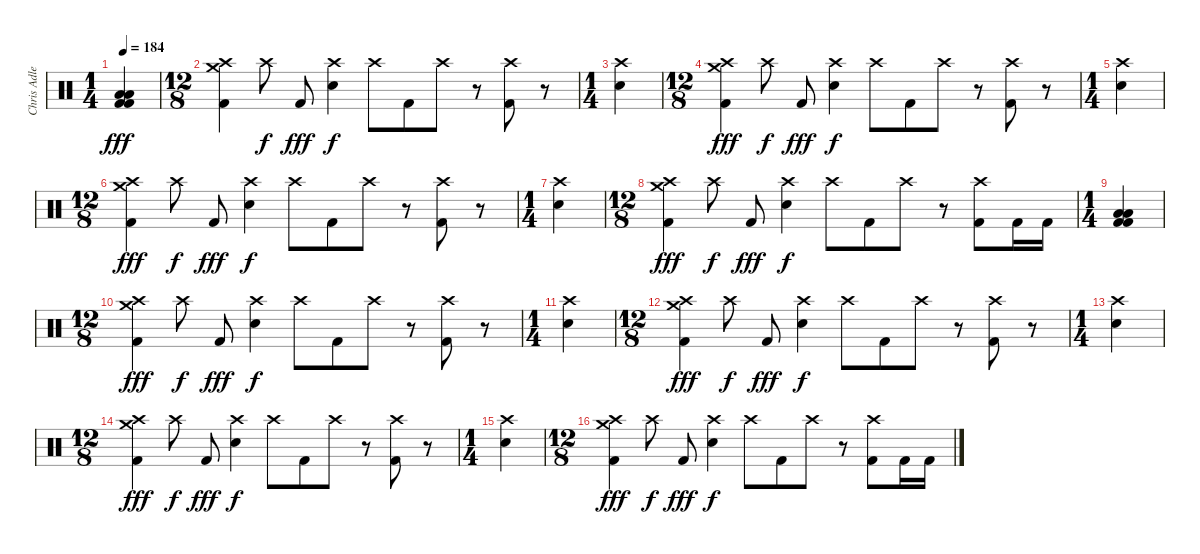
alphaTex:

\track ("Chris Adler" "Chris Adle") {instrument percussion}
\staff {score}
\articulation defaults
\ts (1 4)
\tempo 184
\clef neutral
\ks c
("Low Floor Tom (hit)" "Low Floor Tom (hit)" "Kick (hit) 2" "Kick (hit) 2").4{dy fff} |
\ts (12 8)
("Crash high (hit)" "Crash medium (hit)" "Kick (hit) 2").4 "Crash high (hit)".8{dy f} "Kick (hit) 2".8{dy fff} ("Crash high (hit)" "Electric Snare (hit)").4{dy f} "Crash high (hit)".8 "Kick (hit) 2".8 "Crash high (hit)".8 r.8 ("Crash high (hit)" "Kick (hit) 2").8 r.8 |
\ts (1 4)
("Crash high (hit)" "Electric Snare (hit)").4 |
\ts (12 8)
("Crash high (hit)" "Crash medium (hit)" "Kick (hit) 2").4{dy fff} "Crash high (hit)".8{dy f} "Kick (hit) 2".8{dy fff} ("Crash high (hit)" "Electric Snare (hit)").4{dy f} "Crash high (hit)".8 "Kick (hit) 2".8 "Crash high (hit)".8 r.8 ("Crash high (hit)" "Kick (hit) 2").8 r.8 |
\ts (1 4)
("Crash high (hit)" "Electric Snare (hit)").4 |
\ts (12 8)
("Crash high (hit)" "Crash medium (hit)" "Kick (hit) 2").4{dy fff} "Crash high (hit)".8{dy f} "Kick (hit) 2".8{dy fff} ("Crash high (hit)" "Electric Snare (hit)").4{dy f} "Crash high (hit)".8 "Kick (hit) 2".8 "Crash high (hit)".8 r.8 ("Crash high (hit)" "Kick (hit) 2").8 r.8 |
\ts (1 4)
("Crash high (hit)" "Electric Snare (hit)").4 |
\ts (12 8)
("Crash high (hit)" "Crash medium (hit)" "Kick (hit) 2").4{dy fff} "Crash high (hit)".8{dy f} "Kick (hit) 2".8{dy fff} ("Crash high (hit)" "Electric Snare (hit)").4{dy f} "Crash high (hit)".8 "Kick (hit) 2".8 "Crash high (hit)".8 r.8 ("Crash high (hit)" "Kick (hit) 2").8 "Kick (hit) 2".16 "Kick (hit) 2".16 |
\ts (1 4)
("Low Floor Tom (hit)" "Low Floor Tom (hit)" "Kick (hit) 2" "Kick (hit) 2").4 |
\ts (12 8)
("Crash high (hit)" "Crash medium (hit)" "Kick (hit) 2").4{dy fff} "Crash high (hit)".8{dy f} "Kick (hit) 2".8{dy fff} ("Crash high (hit)" "Electric Snare (hit)").4{dy f} "Crash high (hit)".8 "Kick (hit) 2".8 "Crash high (hit)".8 r.8 ("Crash high (hit)" "Kick (hit) 2").8 r.8 |
\ts (1 4)
("Crash high (hit)" "Electric Snare (hit)").4 |
\ts (12 8)
("Crash high (hit)" "Crash medium (hit)" "Kick (hit) 2").4{dy fff} "Crash high (hit)".8{dy f} "Kick (hit) 2".8{dy fff} ("Crash high (hit)" "Electric Snare (hit)").4{dy f} "Crash high (hit)".8 "Kick (hit) 2".8 "Crash high (hit)".8 r.8 ("Crash high (hit)" "Kick (hit) 2").8 r.8 |
\ts (1 4)
("Crash high (hit)" "Electric Snare (hit)").4 |
\ts (12 8)
("Crash high (hit)" "Crash medium (hit)" "Kick (hit) 2").4{dy fff} "Crash high (hit)".8{dy f} "Kick (hit) 2".8{dy fff} ("Crash high (hit)" "Electric Snare (hit)").4{dy f} "Crash high (hit)".8 "Kick (hit) 2".8 "Crash high (hit)".8 r.8 ("Crash high (hit)" "Kick (hit) 2").8 r.8 |
\ts (1 4)
("Crash high (hit)" "Electric Snare (hit)").4 |
\ts (12 8)
("Crash high (hit)" "Crash medium (hit)" "Kick (hit) 2").4{dy fff} "Crash high (hit)".8{dy f} "Kick (hit) 2".8{dy fff} ("Crash high (hit)" "Electric Snare (hit)").4{dy f} "Crash high (hit)".8 "Kick (hit) 2".8 "Crash high (hit)".8 r.8 ("Crash high (hit)" "Kick (hit) 2").8 "Kick (hit) 2".16 "Kick (hit) 2".16
